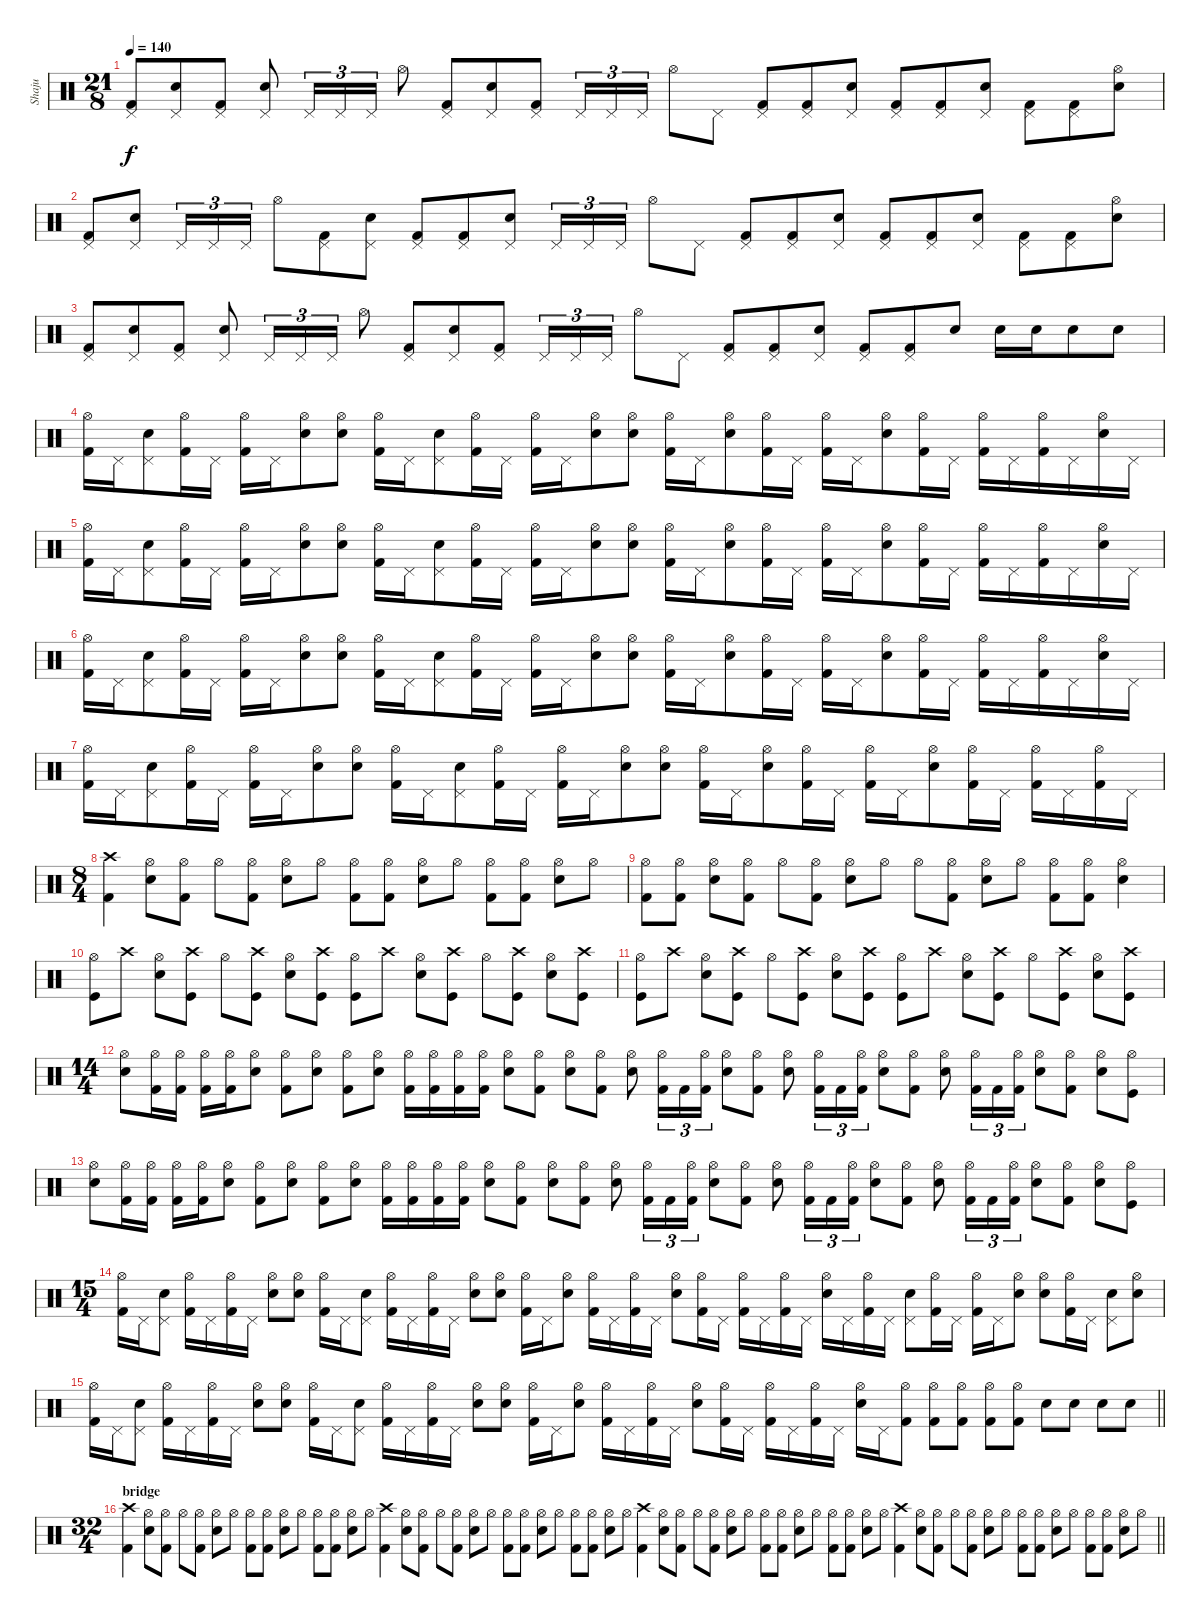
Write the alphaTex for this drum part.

\track ("Shaju" "Shaju") {instrument percussion}
\staff {score}
\articulation defaults
\ts (21 8)
\tempo 140
\clef neutral
\ks c
("Pedal Hi-Hat (hit)" "Kick (hit) 2").8{dy f} ("Pedal Hi-Hat (hit)" "Snare (hit) 2").8 ("Pedal Hi-Hat (hit)" "Kick (hit) 2").8 ("Pedal Hi-Hat (hit)" "Snare (hit) 2").8 "Pedal Hi-Hat (hit)".16{tu (3 2)} "Pedal Hi-Hat (hit)".16{tu (3 2)} "Pedal Hi-Hat (hit)".16{tu (3 2)} "Hi-Hat (open)".8 ("Pedal Hi-Hat (hit)" "Kick (hit) 2").8 ("Pedal Hi-Hat (hit)" "Snare (hit) 2").8 ("Pedal Hi-Hat (hit)" "Kick (hit) 2").8 "Pedal Hi-Hat (hit)".16{tu (3 2)} "Pedal Hi-Hat (hit)".16{tu (3 2)} "Pedal Hi-Hat (hit)".16{tu (3 2)} "Hi-Hat (open)".8 "Pedal Hi-Hat (hit)".8 ("Pedal Hi-Hat (hit)" "Kick (hit) 2").8 ("Pedal Hi-Hat (hit)" "Kick (hit) 2").8 ("Pedal Hi-Hat (hit)" "Snare (hit) 2").8 ("Pedal Hi-Hat (hit)" "Kick (hit) 2").8 ("Pedal Hi-Hat (hit)" "Kick (hit) 2").8 ("Pedal Hi-Hat (hit)" "Snare (hit) 2").8 ("Pedal Hi-Hat (hit)" "Kick (hit) 2").8 ("Pedal Hi-Hat (hit)" "Kick (hit) 2").8 ("Hi-Hat (open)" "Snare (hit) 2").8 |
("Pedal Hi-Hat (hit)" "Kick (hit) 2").8 ("Pedal Hi-Hat (hit)" "Snare (hit) 2").8 "Pedal Hi-Hat (hit)".16{tu (3 2)} "Pedal Hi-Hat (hit)".16{tu (3 2)} "Pedal Hi-Hat (hit)".16{tu (3 2)} "Hi-Hat (open)".8 ("Pedal Hi-Hat (hit)" "Kick (hit) 2").8 ("Pedal Hi-Hat (hit)" "Snare (hit) 2").8 ("Pedal Hi-Hat (hit)" "Kick (hit) 2").8 ("Pedal Hi-Hat (hit)" "Kick (hit) 2").8 ("Pedal Hi-Hat (hit)" "Snare (hit) 2").8 "Pedal Hi-Hat (hit)".16{tu (3 2)} "Pedal Hi-Hat (hit)".16{tu (3 2)} "Pedal Hi-Hat (hit)".16{tu (3 2)} "Hi-Hat (open)".8 "Pedal Hi-Hat (hit)".8 ("Pedal Hi-Hat (hit)" "Kick (hit) 2").8 ("Pedal Hi-Hat (hit)" "Kick (hit) 2").8 ("Pedal Hi-Hat (hit)" "Snare (hit) 2").8 ("Pedal Hi-Hat (hit)" "Kick (hit) 2").8 ("Pedal Hi-Hat (hit)" "Kick (hit) 2").8 ("Pedal Hi-Hat (hit)" "Snare (hit) 2").8 ("Pedal Hi-Hat (hit)" "Kick (hit) 2").8 ("Pedal Hi-Hat (hit)" "Kick (hit) 2").8 ("Hi-Hat (open)" "Snare (hit) 2").8 |
("Pedal Hi-Hat (hit)" "Kick (hit) 2").8 ("Pedal Hi-Hat (hit)" "Snare (hit) 2").8 ("Pedal Hi-Hat (hit)" "Kick (hit) 2").8 ("Pedal Hi-Hat (hit)" "Snare (hit) 2").8 "Pedal Hi-Hat (hit)".16{tu (3 2)} "Pedal Hi-Hat (hit)".16{tu (3 2)} "Pedal Hi-Hat (hit)".16{tu (3 2)} "Hi-Hat (open)".8 ("Pedal Hi-Hat (hit)" "Kick (hit) 2").8 ("Pedal Hi-Hat (hit)" "Snare (hit) 2").8 ("Pedal Hi-Hat (hit)" "Kick (hit) 2").8 "Pedal Hi-Hat (hit)".16{tu (3 2)} "Pedal Hi-Hat (hit)".16{tu (3 2)} "Pedal Hi-Hat (hit)".16{tu (3 2)} "Hi-Hat (open)".8 "Pedal Hi-Hat (hit)".8 ("Pedal Hi-Hat (hit)" "Kick (hit) 2").8 ("Pedal Hi-Hat (hit)" "Kick (hit) 2").8 ("Pedal Hi-Hat (hit)" "Snare (hit) 2").8 ("Pedal Hi-Hat (hit)" "Kick (hit) 2").8 ("Pedal Hi-Hat (hit)" "Kick (hit) 2").8 "Snare (hit) 2".8 "Snare (hit) 2".16 "Snare (hit) 2".16 "Snare (hit) 2".8 "Snare (hit) 2".8 |
("Hi-Hat (open)" "Kick (hit) 2").16 "Pedal Hi-Hat (hit)".16 ("Pedal Hi-Hat (hit)" "Snare (hit) 2").8 ("Hi-Hat (open)" "Kick (hit) 2").16 "Pedal Hi-Hat (hit)".16 ("Hi-Hat (open)" "Kick (hit) 2").16 "Pedal Hi-Hat (hit)".16 ("Hi-Hat (open)" "Snare (hit) 2").8 ("Hi-Hat (open)" "Snare (hit) 2").8 ("Hi-Hat (open)" "Kick (hit) 2").16 "Pedal Hi-Hat (hit)".16 ("Pedal Hi-Hat (hit)" "Snare (hit) 2").8 ("Hi-Hat (open)" "Kick (hit) 2").16 "Pedal Hi-Hat (hit)".16 ("Hi-Hat (open)" "Kick (hit) 2").16 "Pedal Hi-Hat (hit)".16 ("Hi-Hat (open)" "Snare (hit) 2").8 ("Hi-Hat (open)" "Snare (hit) 2").8 ("Hi-Hat (open)" "Kick (hit) 2").16 "Pedal Hi-Hat (hit)".16 ("Hi-Hat (open)" "Snare (hit) 2").8 ("Hi-Hat (open)" "Kick (hit) 2").16 "Pedal Hi-Hat (hit)".16 ("Hi-Hat (open)" "Kick (hit) 2").16 "Pedal Hi-Hat (hit)".16 ("Hi-Hat (open)" "Snare (hit) 2").8 ("Hi-Hat (open)" "Kick (hit) 2").16 "Pedal Hi-Hat (hit)".16 ("Hi-Hat (open)" "Kick (hit) 2").16 "Pedal Hi-Hat (hit)".16 ("Hi-Hat (open)" "Kick (hit) 2").16 "Pedal Hi-Hat (hit)".16 ("Hi-Hat (open)" "Snare (hit) 2").16 "Pedal Hi-Hat (hit)".16 |
("Hi-Hat (open)" "Kick (hit) 2").16 "Pedal Hi-Hat (hit)".16 ("Pedal Hi-Hat (hit)" "Snare (hit) 2").8 ("Hi-Hat (open)" "Kick (hit) 2").16 "Pedal Hi-Hat (hit)".16 ("Hi-Hat (open)" "Kick (hit) 2").16 "Pedal Hi-Hat (hit)".16 ("Hi-Hat (open)" "Snare (hit) 2").8 ("Hi-Hat (open)" "Snare (hit) 2").8 ("Hi-Hat (open)" "Kick (hit) 2").16 "Pedal Hi-Hat (hit)".16 ("Pedal Hi-Hat (hit)" "Snare (hit) 2").8 ("Hi-Hat (open)" "Kick (hit) 2").16 "Pedal Hi-Hat (hit)".16 ("Hi-Hat (open)" "Kick (hit) 2").16 "Pedal Hi-Hat (hit)".16 ("Hi-Hat (open)" "Snare (hit) 2").8 ("Hi-Hat (open)" "Snare (hit) 2").8 ("Hi-Hat (open)" "Kick (hit) 2").16 "Pedal Hi-Hat (hit)".16 ("Hi-Hat (open)" "Snare (hit) 2").8 ("Hi-Hat (open)" "Kick (hit) 2").16 "Pedal Hi-Hat (hit)".16 ("Hi-Hat (open)" "Kick (hit) 2").16 "Pedal Hi-Hat (hit)".16 ("Hi-Hat (open)" "Snare (hit) 2").8 ("Hi-Hat (open)" "Kick (hit) 2").16 "Pedal Hi-Hat (hit)".16 ("Hi-Hat (open)" "Kick (hit) 2").16 "Pedal Hi-Hat (hit)".16 ("Hi-Hat (open)" "Kick (hit) 2").16 "Pedal Hi-Hat (hit)".16 ("Hi-Hat (open)" "Snare (hit) 2").16 "Pedal Hi-Hat (hit)".16 |
("Hi-Hat (open)" "Kick (hit) 2").16 "Pedal Hi-Hat (hit)".16 ("Pedal Hi-Hat (hit)" "Snare (hit) 2").8 ("Hi-Hat (open)" "Kick (hit) 2").16 "Pedal Hi-Hat (hit)".16 ("Hi-Hat (open)" "Kick (hit) 2").16 "Pedal Hi-Hat (hit)".16 ("Hi-Hat (open)" "Snare (hit) 2").8 ("Hi-Hat (open)" "Snare (hit) 2").8 ("Hi-Hat (open)" "Kick (hit) 2").16 "Pedal Hi-Hat (hit)".16 ("Pedal Hi-Hat (hit)" "Snare (hit) 2").8 ("Hi-Hat (open)" "Kick (hit) 2").16 "Pedal Hi-Hat (hit)".16 ("Hi-Hat (open)" "Kick (hit) 2").16 "Pedal Hi-Hat (hit)".16 ("Hi-Hat (open)" "Snare (hit) 2").8 ("Hi-Hat (open)" "Snare (hit) 2").8 ("Hi-Hat (open)" "Kick (hit) 2").16 "Pedal Hi-Hat (hit)".16 ("Hi-Hat (open)" "Snare (hit) 2").8 ("Hi-Hat (open)" "Kick (hit) 2").16 "Pedal Hi-Hat (hit)".16 ("Hi-Hat (open)" "Kick (hit) 2").16 "Pedal Hi-Hat (hit)".16 ("Hi-Hat (open)" "Snare (hit) 2").8 ("Hi-Hat (open)" "Kick (hit) 2").16 "Pedal Hi-Hat (hit)".16 ("Hi-Hat (open)" "Kick (hit) 2").16 "Pedal Hi-Hat (hit)".16 ("Hi-Hat (open)" "Kick (hit) 2").16 "Pedal Hi-Hat (hit)".16 ("Hi-Hat (open)" "Snare (hit) 2").16 "Pedal Hi-Hat (hit)".16 |
("Hi-Hat (open)" "Kick (hit) 2").16 "Pedal Hi-Hat (hit)".16 ("Pedal Hi-Hat (hit)" "Snare (hit) 2").8 ("Hi-Hat (open)" "Kick (hit) 2").16 "Pedal Hi-Hat (hit)".16 ("Hi-Hat (open)" "Kick (hit) 2").16 "Pedal Hi-Hat (hit)".16 ("Hi-Hat (open)" "Snare (hit) 2").8 ("Hi-Hat (open)" "Snare (hit) 2").8 ("Hi-Hat (open)" "Kick (hit) 2").16 "Pedal Hi-Hat (hit)".16 ("Pedal Hi-Hat (hit)" "Snare (hit) 2").8 ("Hi-Hat (open)" "Kick (hit) 2").16 "Pedal Hi-Hat (hit)".16 ("Hi-Hat (open)" "Kick (hit) 2").16 "Pedal Hi-Hat (hit)".16 ("Hi-Hat (open)" "Snare (hit) 2").8 ("Hi-Hat (open)" "Snare (hit) 2").8 ("Hi-Hat (open)" "Kick (hit) 2").16 "Pedal Hi-Hat (hit)".16 ("Hi-Hat (open)" "Snare (hit) 2").8 ("Hi-Hat (open)" "Kick (hit) 2").16 "Pedal Hi-Hat (hit)".16 ("Hi-Hat (open)" "Kick (hit) 2").16 "Pedal Hi-Hat (hit)".16 ("Hi-Hat (open)" "Snare (hit) 2").8 ("Hi-Hat (open)" "Kick (hit) 2").16 "Pedal Hi-Hat (hit)".16 ("Hi-Hat (open)" "Kick (hit) 2").16 "Pedal Hi-Hat (hit)".16 ("Hi-Hat (open)" "Kick (hit) 2").16 "Pedal Hi-Hat (hit)".16 |
\ts (8 4)
("Crash high (hit)" "Kick (hit) 2").4 ("Hi-Hat (open)" "Snare (hit) 2").8 ("Hi-Hat (open)" "Kick (hit) 2").8 "Hi-Hat (open)".8 ("Hi-Hat (open)" "Kick (hit) 2").8 ("Hi-Hat (open)" "Snare (hit) 2").8 "Hi-Hat (open)".8 ("Hi-Hat (open)" "Kick (hit) 2").8 ("Hi-Hat (open)" "Kick (hit) 2").8 ("Hi-Hat (open)" "Snare (hit) 2").8 "Hi-Hat (open)".8 ("Hi-Hat (open)" "Kick (hit) 2").8 ("Hi-Hat (open)" "Kick (hit) 2").8 ("Hi-Hat (open)" "Snare (hit) 2").8 "Hi-Hat (open)".8 |
("Hi-Hat (open)" "Kick (hit) 2").8 ("Hi-Hat (open)" "Kick (hit) 2").8 ("Hi-Hat (open)" "Snare (hit) 2").8 ("Hi-Hat (open)" "Kick (hit) 2").8 "Hi-Hat (open)".8 ("Hi-Hat (open)" "Kick (hit) 2").8 ("Hi-Hat (open)" "Snare (hit) 2").8 "Hi-Hat (open)".8 "Hi-Hat (open)".8 ("Hi-Hat (open)" "Kick (hit) 2").8 ("Hi-Hat (open)" "Snare (hit) 2").8 "Hi-Hat (open)".8 ("Hi-Hat (open)" "Kick (hit) 2").8 ("Hi-Hat (open)" "Kick (hit) 2").8 ("Hi-Hat (open)" "Snare (hit) 2").4 |
("Hi-Hat (open)" "Kick (hit)").8 "Crash high (hit)".8 ("Hi-Hat (open)" "Snare (hit) 2").8 ("Crash high (hit)" "Kick (hit)").8 "Hi-Hat (open)".8 ("Crash high (hit)" "Kick (hit)").8 ("Hi-Hat (open)" "Snare (hit) 2").8 ("Crash high (hit)" "Kick (hit)").8 ("Hi-Hat (open)" "Kick (hit)").8 "Crash high (hit)".8 ("Hi-Hat (open)" "Snare (hit) 2").8 ("Crash high (hit)" "Kick (hit)").8 "Hi-Hat (open)".8 ("Crash high (hit)" "Kick (hit)").8 ("Hi-Hat (open)" "Snare (hit) 2").8 ("Crash high (hit)" "Kick (hit)").8 |
("Hi-Hat (open)" "Kick (hit)").8 "Crash high (hit)".8 ("Hi-Hat (open)" "Snare (hit) 2").8 ("Crash high (hit)" "Kick (hit)").8 "Hi-Hat (open)".8 ("Crash high (hit)" "Kick (hit)").8 ("Hi-Hat (open)" "Snare (hit) 2").8 ("Crash high (hit)" "Kick (hit)").8 ("Hi-Hat (open)" "Kick (hit)").8 "Crash high (hit)".8 ("Hi-Hat (open)" "Snare (hit) 2").8 ("Crash high (hit)" "Kick (hit)").8 "Hi-Hat (open)".8 ("Crash high (hit)" "Kick (hit)").8 ("Hi-Hat (open)" "Snare (hit) 2").8 ("Crash high (hit)" "Kick (hit)").8 |
\ts (14 4)
("Hi-Hat (open)" "Snare (hit) 2").8 ("Hi-Hat (open)" "Kick (hit) 2").16 ("Hi-Hat (open)" "Kick (hit) 2").16 ("Hi-Hat (open)" "Kick (hit) 2").16 ("Hi-Hat (open)" "Kick (hit) 2").16 ("Hi-Hat (open)" "Snare (hit) 2").8 ("Hi-Hat (open)" "Kick (hit) 2").8 ("Hi-Hat (open)" "Snare (hit) 2").8 ("Hi-Hat (open)" "Kick (hit) 2").8 ("Hi-Hat (open)" "Snare (hit) 2").8 ("Hi-Hat (open)" "Kick (hit) 2").16 ("Hi-Hat (open)" "Kick (hit) 2").16 ("Hi-Hat (open)" "Kick (hit) 2").16 ("Hi-Hat (open)" "Kick (hit) 2").16 ("Hi-Hat (open)" "Snare (hit) 2").8 ("Hi-Hat (open)" "Kick (hit) 2").8 ("Hi-Hat (open)" "Snare (hit) 2").8 ("Hi-Hat (open)" "Kick (hit) 2").8 ("Hi-Hat (open)" "Snare (hit) 2").8 ("Hi-Hat (open)" "Kick (hit) 2").16{tu (3 2)} "Kick (hit) 2".16{tu (3 2)} ("Hi-Hat (open)" "Kick (hit) 2").16{tu (3 2)} ("Snare (hit) 2" "Hi-Hat (open)").8 ("Hi-Hat (open)" "Kick (hit) 2").8 ("Hi-Hat (open)" "Snare (hit) 2").8 ("Hi-Hat (open)" "Kick (hit) 2").16{tu (3 2)} "Kick (hit) 2".16{tu (3 2)} ("Hi-Hat (open)" "Kick (hit) 2").16{tu (3 2)} ("Snare (hit) 2" "Hi-Hat (open)").8 ("Hi-Hat (open)" "Kick (hit) 2").8 ("Hi-Hat (open)" "Snare (hit) 2").8 ("Hi-Hat (open)" "Kick (hit) 2").16{tu (3 2)} "Kick (hit) 2".16{tu (3 2)} ("Hi-Hat (open)" "Kick (hit) 2").16{tu (3 2)} ("Hi-Hat (open)" "Snare (hit) 2").8 ("Hi-Hat (open)" "Kick (hit) 2").8 ("Hi-Hat (open)" "Snare (hit) 2").8 ("Hi-Hat (open)" "Kick (hit)").8 |
("Hi-Hat (open)" "Snare (hit) 2").8 ("Hi-Hat (open)" "Kick (hit) 2").16 ("Hi-Hat (open)" "Kick (hit) 2").16 ("Hi-Hat (open)" "Kick (hit) 2").16 ("Hi-Hat (open)" "Kick (hit) 2").16 ("Hi-Hat (open)" "Snare (hit) 2").8 ("Hi-Hat (open)" "Kick (hit) 2").8 ("Hi-Hat (open)" "Snare (hit) 2").8 ("Hi-Hat (open)" "Kick (hit) 2").8 ("Hi-Hat (open)" "Snare (hit) 2").8 ("Hi-Hat (open)" "Kick (hit) 2").16 ("Hi-Hat (open)" "Kick (hit) 2").16 ("Hi-Hat (open)" "Kick (hit) 2").16 ("Hi-Hat (open)" "Kick (hit) 2").16 ("Hi-Hat (open)" "Snare (hit) 2").8 ("Hi-Hat (open)" "Kick (hit) 2").8 ("Hi-Hat (open)" "Snare (hit) 2").8 ("Hi-Hat (open)" "Kick (hit) 2").8 ("Hi-Hat (open)" "Snare (hit) 2").8 ("Hi-Hat (open)" "Kick (hit) 2").16{tu (3 2)} "Kick (hit) 2".16{tu (3 2)} ("Hi-Hat (open)" "Kick (hit) 2").16{tu (3 2)} ("Snare (hit) 2" "Hi-Hat (open)").8 ("Hi-Hat (open)" "Kick (hit) 2").8 ("Hi-Hat (open)" "Snare (hit) 2").8 ("Hi-Hat (open)" "Kick (hit) 2").16{tu (3 2)} "Kick (hit) 2".16{tu (3 2)} ("Hi-Hat (open)" "Kick (hit) 2").16{tu (3 2)} ("Snare (hit) 2" "Hi-Hat (open)").8 ("Hi-Hat (open)" "Kick (hit) 2").8 ("Hi-Hat (open)" "Snare (hit) 2").8 ("Hi-Hat (open)" "Kick (hit) 2").16{tu (3 2)} "Kick (hit) 2".16{tu (3 2)} ("Hi-Hat (open)" "Kick (hit) 2").16{tu (3 2)} ("Hi-Hat (open)" "Snare (hit) 2").8 ("Hi-Hat (open)" "Kick (hit) 2").8 ("Hi-Hat (open)" "Snare (hit) 2").8 ("Hi-Hat (open)" "Kick (hit)").8 |
\ts (15 4)
("Hi-Hat (open)" "Kick (hit) 2").16 "Pedal Hi-Hat (hit)".16 ("Pedal Hi-Hat (hit)" "Snare (hit) 2").8 ("Hi-Hat (open)" "Kick (hit) 2").16 "Pedal Hi-Hat (hit)".16 ("Hi-Hat (open)" "Kick (hit) 2").16 "Pedal Hi-Hat (hit)".16 ("Hi-Hat (open)" "Snare (hit) 2").8 ("Hi-Hat (open)" "Snare (hit) 2").8 ("Hi-Hat (open)" "Kick (hit) 2").16 "Pedal Hi-Hat (hit)".16 ("Pedal Hi-Hat (hit)" "Snare (hit) 2").8 ("Hi-Hat (open)" "Kick (hit) 2").16 "Pedal Hi-Hat (hit)".16 ("Hi-Hat (open)" "Kick (hit) 2").16 "Pedal Hi-Hat (hit)".16 ("Hi-Hat (open)" "Snare (hit) 2").8 ("Hi-Hat (open)" "Snare (hit) 2").8 ("Hi-Hat (open)" "Kick (hit) 2").16 "Pedal Hi-Hat (hit)".16 ("Hi-Hat (open)" "Snare (hit) 2").8 ("Hi-Hat (open)" "Kick (hit) 2").16 "Pedal Hi-Hat (hit)".16 ("Hi-Hat (open)" "Kick (hit) 2").16 "Pedal Hi-Hat (hit)".16 ("Hi-Hat (open)" "Snare (hit) 2").8 ("Hi-Hat (open)" "Kick (hit) 2").16 "Pedal Hi-Hat (hit)".16 ("Hi-Hat (open)" "Kick (hit) 2").16 "Pedal Hi-Hat (hit)".16 ("Hi-Hat (open)" "Kick (hit) 2").16 "Pedal Hi-Hat (hit)".16 ("Hi-Hat (open)" "Snare (hit) 2").16 "Pedal Hi-Hat (hit)".16 ("Hi-Hat (open)" "Kick (hit) 2").16 "Pedal Hi-Hat (hit)".16 ("Pedal Hi-Hat (hit)" "Snare (hit) 2").8 ("Hi-Hat (open)" "Kick (hit) 2").16 "Pedal Hi-Hat (hit)".16 ("Hi-Hat (open)" "Kick (hit) 2").16 "Pedal Hi-Hat (hit)".16 ("Hi-Hat (open)" "Snare (hit) 2").8 ("Hi-Hat (open)" "Snare (hit) 2").8 ("Hi-Hat (open)" "Kick (hit) 2").16 "Pedal Hi-Hat (hit)".16 ("Pedal Hi-Hat (hit)" "Snare (hit) 2").8 ("Hi-Hat (open)" "Snare (hit) 2").8 |
\barLineRight lightlight
("Hi-Hat (open)" "Kick (hit) 2").16 "Pedal Hi-Hat (hit)".16 ("Pedal Hi-Hat (hit)" "Snare (hit) 2").8 ("Hi-Hat (open)" "Kick (hit) 2").16 "Pedal Hi-Hat (hit)".16 ("Hi-Hat (open)" "Kick (hit) 2").16 "Pedal Hi-Hat (hit)".16 ("Hi-Hat (open)" "Snare (hit) 2").8 ("Hi-Hat (open)" "Snare (hit) 2").8 ("Hi-Hat (open)" "Kick (hit) 2").16 "Pedal Hi-Hat (hit)".16 ("Pedal Hi-Hat (hit)" "Snare (hit) 2").8 ("Hi-Hat (open)" "Kick (hit) 2").16 "Pedal Hi-Hat (hit)".16 ("Hi-Hat (open)" "Kick (hit) 2").16 "Pedal Hi-Hat (hit)".16 ("Hi-Hat (open)" "Snare (hit) 2").8 ("Hi-Hat (open)" "Snare (hit) 2").8 ("Hi-Hat (open)" "Kick (hit) 2").16 "Pedal Hi-Hat (hit)".16 ("Hi-Hat (open)" "Snare (hit) 2").8 ("Hi-Hat (open)" "Kick (hit) 2").16 "Pedal Hi-Hat (hit)".16 ("Hi-Hat (open)" "Kick (hit) 2").16 "Pedal Hi-Hat (hit)".16 ("Hi-Hat (open)" "Snare (hit) 2").8 ("Hi-Hat (open)" "Kick (hit) 2").16 "Pedal Hi-Hat (hit)".16 ("Hi-Hat (open)" "Kick (hit) 2").16 "Pedal Hi-Hat (hit)".16 ("Hi-Hat (open)" "Kick (hit) 2").16 "Pedal Hi-Hat (hit)".16 ("Hi-Hat (open)" "Snare (hit) 2").16 "Pedal Hi-Hat (hit)".16 ("Hi-Hat (open)" "Kick (hit) 2").8 ("Hi-Hat (open)" "Kick (hit) 2").8 ("Hi-Hat (open)" "Kick (hit) 2").8 ("Hi-Hat (open)" "Kick (hit) 2").8 ("Hi-Hat (open)" "Kick (hit) 2").8 "Electric Snare (hit)".8 "Electric Snare (hit)".8 "Electric Snare (hit)".8 "Electric Snare (hit)".8 |
\ts (32 4)
\section ("" "bridge")
\barLineRight lightlight
("Crash high (hit)" "Kick (hit) 2").4 ("Hi-Hat (open)" "Snare (hit) 2").8 ("Hi-Hat (open)" "Kick (hit) 2").8 "Hi-Hat (open)".8 ("Hi-Hat (open)" "Kick (hit) 2").8 ("Hi-Hat (open)" "Snare (hit) 2").8 "Hi-Hat (open)".8 ("Hi-Hat (open)" "Kick (hit) 2").8 ("Hi-Hat (open)" "Kick (hit) 2").8 ("Hi-Hat (open)" "Snare (hit) 2").8 "Hi-Hat (open)".8 ("Hi-Hat (open)" "Kick (hit) 2").8 ("Hi-Hat (open)" "Kick (hit) 2").8 ("Hi-Hat (open)" "Snare (hit) 2").8 "Hi-Hat (open)".8 ("Crash high (hit)" "Kick (hit) 2").4 ("Hi-Hat (open)" "Snare (hit) 2").8 ("Hi-Hat (open)" "Kick (hit) 2").8 "Hi-Hat (open)".8 ("Hi-Hat (open)" "Kick (hit) 2").8 ("Hi-Hat (open)" "Snare (hit) 2").8 "Hi-Hat (open)".8 ("Hi-Hat (open)" "Kick (hit) 2").8 ("Hi-Hat (open)" "Kick (hit) 2").8 ("Hi-Hat (open)" "Snare (hit) 2").8 "Hi-Hat (open)".8 ("Hi-Hat (open)" "Kick (hit) 2").8 ("Hi-Hat (open)" "Kick (hit) 2").8 ("Hi-Hat (open)" "Snare (hit) 2").8 "Hi-Hat (open)".8 ("Crash high (hit)" "Kick (hit) 2").4 ("Hi-Hat (open)" "Snare (hit) 2").8 ("Hi-Hat (open)" "Kick (hit) 2").8 "Hi-Hat (open)".8 ("Hi-Hat (open)" "Kick (hit) 2").8 ("Hi-Hat (open)" "Snare (hit) 2").8 "Hi-Hat (open)".8 ("Hi-Hat (open)" "Kick (hit) 2").8 ("Hi-Hat (open)" "Kick (hit) 2").8 ("Hi-Hat (open)" "Snare (hit) 2").8 "Hi-Hat (open)".8 ("Hi-Hat (open)" "Kick (hit) 2").8 ("Hi-Hat (open)" "Kick (hit) 2").8 ("Hi-Hat (open)" "Snare (hit) 2").8 "Hi-Hat (open)".8 ("Crash high (hit)" "Kick (hit) 2").4 ("Hi-Hat (open)" "Snare (hit) 2").8 ("Hi-Hat (open)" "Kick (hit) 2").8 "Hi-Hat (open)".8 ("Hi-Hat (open)" "Kick (hit) 2").8 ("Hi-Hat (open)" "Snare (hit) 2").8 "Hi-Hat (open)".8 ("Hi-Hat (open)" "Kick (hit) 2").8 ("Hi-Hat (open)" "Kick (hit) 2").8 ("Hi-Hat (open)" "Snare (hit) 2").8 "Hi-Hat (open)".8 ("Hi-Hat (open)" "Kick (hit) 2").8 ("Hi-Hat (open)" "Kick (hit) 2").8 ("Hi-Hat (open)" "Snare (hit) 2").8 "Hi-Hat (open)".8
